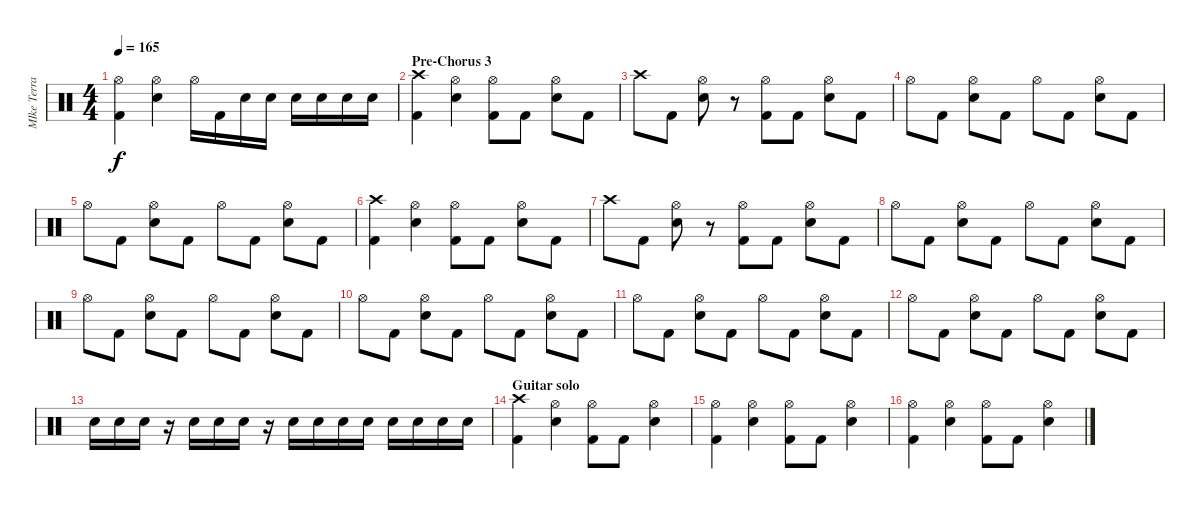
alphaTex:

\track ("MIke Terrana - Batteria" "MIke Terra") {instrument percussion}
\staff {score}
\articulation defaults
\ts (4 4)
\tempo 165
\clef neutral
\ks c
("Kick (hit) 2" "Hi-Hat (open)").4{dy f} ("Electric Snare (hit)" "Hi-Hat (open)").4 "Hi-Hat (open)".16 "Kick (hit) 2".16 "Electric Snare (hit)".16 "Electric Snare (hit)".16 "Electric Snare (hit)".16 "Electric Snare (hit)".16 "Electric Snare (hit)".16 "Electric Snare (hit)".16 |
\section ("" "Pre-Chorus 3")
("Kick (hit) 2" "Crash high (hit)").4 ("Electric Snare (hit)" "Hi-Hat (open)").4 ("Kick (hit) 2" "Hi-Hat (open)").8 "Kick (hit) 2".8 ("Electric Snare (hit)" "Hi-Hat (open)").8 "Kick (hit) 2".8 |
"Crash high (hit)".8 "Kick (hit) 2".8 ("Electric Snare (hit)" "Hi-Hat (open)").8 r.8 ("Kick (hit) 2" "Hi-Hat (open)").8 "Kick (hit) 2".8 ("Electric Snare (hit)" "Hi-Hat (open)").8 "Kick (hit) 2".8 |
"Hi-Hat (open)".8 "Kick (hit) 2".8 ("Electric Snare (hit)" "Hi-Hat (open)").8 "Kick (hit) 2".8 "Hi-Hat (open)".8 "Kick (hit) 2".8 ("Electric Snare (hit)" "Hi-Hat (open)").8 "Kick (hit) 2".8 |
"Hi-Hat (open)".8 "Kick (hit) 2".8 ("Electric Snare (hit)" "Hi-Hat (open)").8 "Kick (hit) 2".8 "Hi-Hat (open)".8 "Kick (hit) 2".8 ("Electric Snare (hit)" "Hi-Hat (open)").8 "Kick (hit) 2".8 |
("Kick (hit) 2" "Crash high (hit)").4 ("Electric Snare (hit)" "Hi-Hat (open)").4 ("Kick (hit) 2" "Hi-Hat (open)").8 "Kick (hit) 2".8 ("Electric Snare (hit)" "Hi-Hat (open)").8 "Kick (hit) 2".8 |
"Crash high (hit)".8 "Kick (hit) 2".8 ("Electric Snare (hit)" "Hi-Hat (open)").8 r.8 ("Kick (hit) 2" "Hi-Hat (open)").8 "Kick (hit) 2".8 ("Electric Snare (hit)" "Hi-Hat (open)").8 "Kick (hit) 2".8 |
"Hi-Hat (open)".8 "Kick (hit) 2".8 ("Electric Snare (hit)" "Hi-Hat (open)").8 "Kick (hit) 2".8 "Hi-Hat (open)".8 "Kick (hit) 2".8 ("Electric Snare (hit)" "Hi-Hat (open)").8 "Kick (hit) 2".8 |
"Hi-Hat (open)".8 "Kick (hit) 2".8 ("Electric Snare (hit)" "Hi-Hat (open)").8 "Kick (hit) 2".8 "Hi-Hat (open)".8 "Kick (hit) 2".8 ("Electric Snare (hit)" "Hi-Hat (open)").8 "Kick (hit) 2".8 |
"Hi-Hat (open)".8 "Kick (hit) 2".8 ("Electric Snare (hit)" "Hi-Hat (open)").8 "Kick (hit) 2".8 "Hi-Hat (open)".8 "Kick (hit) 2".8 ("Electric Snare (hit)" "Hi-Hat (open)").8 "Kick (hit) 2".8 |
"Hi-Hat (open)".8 "Kick (hit) 2".8 ("Electric Snare (hit)" "Hi-Hat (open)").8 "Kick (hit) 2".8 "Hi-Hat (open)".8 "Kick (hit) 2".8 ("Electric Snare (hit)" "Hi-Hat (open)").8 "Kick (hit) 2".8 |
"Hi-Hat (open)".8 "Kick (hit) 2".8 ("Electric Snare (hit)" "Hi-Hat (open)").8 "Kick (hit) 2".8 "Hi-Hat (open)".8 "Kick (hit) 2".8 ("Electric Snare (hit)" "Hi-Hat (open)").8 "Kick (hit) 2".8 |
"Electric Snare (hit)".16 "Electric Snare (hit)".16 "Electric Snare (hit)".16 r.16 "Electric Snare (hit)".16 "Electric Snare (hit)".16 "Electric Snare (hit)".16 r.16 "Electric Snare (hit)".16 "Electric Snare (hit)".16 "Electric Snare (hit)".16 "Electric Snare (hit)".16 "Electric Snare (hit)".16 "Electric Snare (hit)".16 "Electric Snare (hit)".16 "Electric Snare (hit)".16 |
\section ("" "Guitar solo")
("Kick (hit) 2" "Crash high (hit)").4 ("Electric Snare (hit)" "Hi-Hat (open)").4 ("Kick (hit) 2" "Hi-Hat (open)").8 "Kick (hit) 2".8 ("Electric Snare (hit)" "Hi-Hat (open)").4 |
("Kick (hit) 2" "Hi-Hat (open)").4 ("Electric Snare (hit)" "Hi-Hat (open)").4 ("Kick (hit) 2" "Hi-Hat (open)").8 "Kick (hit) 2".8 ("Electric Snare (hit)" "Hi-Hat (open)").4 |
("Kick (hit) 2" "Hi-Hat (open)").4 ("Electric Snare (hit)" "Hi-Hat (open)").4 ("Kick (hit) 2" "Hi-Hat (open)").8 "Kick (hit) 2".8 ("Electric Snare (hit)" "Hi-Hat (open)").4
